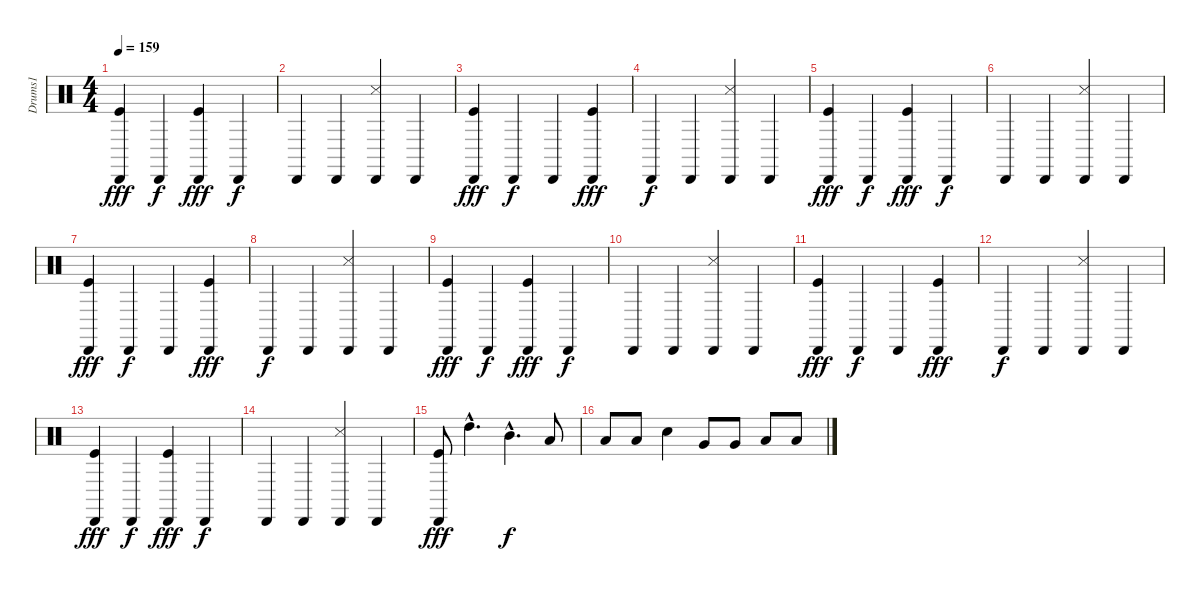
\track ("Drums1" "Drums1") {instrument percussion}
\staff {score}
\articulation defaults
\ts (4 4)
\tempo 159
\clef neutral
\ks c
("Cabasa (hit)" "Kick (hit)").4{dy fff} "Cabasa (hit)".4{dy f} ("Cabasa (hit)" "Kick (hit)").4{dy fff} "Cabasa (hit)".4{dy f} |
"Cabasa (hit)".4 "Cabasa (hit)".4 ("Cabasa (hit)" "Snare (side stick) 3").4 "Cabasa (hit)".4 |
("Cabasa (hit)" "Kick (hit)").4{dy fff} "Cabasa (hit)".4{dy f} "Cabasa (hit)".4 ("Cabasa (hit)" "Kick (hit)").4{dy fff} |
"Cabasa (hit)".4{dy f} "Cabasa (hit)".4 ("Cabasa (hit)" "Snare (side stick) 3").4 "Cabasa (hit)".4 |
("Cabasa (hit)" "Kick (hit)").4{dy fff} "Cabasa (hit)".4{dy f} ("Cabasa (hit)" "Kick (hit)").4{dy fff} "Cabasa (hit)".4{dy f} |
"Cabasa (hit)".4 "Cabasa (hit)".4 ("Cabasa (hit)" "Snare (side stick) 3").4 "Cabasa (hit)".4 |
("Cabasa (hit)" "Kick (hit)").4{dy fff} "Cabasa (hit)".4{dy f} "Cabasa (hit)".4 ("Cabasa (hit)" "Kick (hit)").4{dy fff} |
"Cabasa (hit)".4{dy f} "Cabasa (hit)".4 ("Cabasa (hit)" "Snare (side stick) 3").4 "Cabasa (hit)".4 |
("Cabasa (hit)" "Kick (hit)").4{dy fff} "Cabasa (hit)".4{dy f} ("Cabasa (hit)" "Kick (hit)").4{dy fff} "Cabasa (hit)".4{dy f} |
"Cabasa (hit)".4 "Cabasa (hit)".4 ("Cabasa (hit)" "Snare (side stick) 3").4 "Cabasa (hit)".4 |
("Cabasa (hit)" "Kick (hit)").4{dy fff} "Cabasa (hit)".4{dy f} "Cabasa (hit)".4 ("Cabasa (hit)" "Kick (hit)").4{dy fff} |
"Cabasa (hit)".4{dy f} "Cabasa (hit)".4 ("Cabasa (hit)" "Snare (side stick) 3").4 "Cabasa (hit)".4 |
("Cabasa (hit)" "Kick (hit)").4{dy fff} "Cabasa (hit)".4{dy f} ("Cabasa (hit)" "Kick (hit)").4{dy fff} "Cabasa (hit)".4{dy f} |
"Cabasa (hit)".4 "Cabasa (hit)".4 ("Cabasa (hit)" "Snare (side stick) 3").4 "Cabasa (hit)".4 |
("Cabasa (hit)" "Kick (hit)").8{dy fff} "High Tom (hit)"{hac}.4{d} "Mid Tom (hit)"{hac}.4{d dy f} "Low Tom (hit)".8 |
"Low Tom (hit)".8 "Low Tom (hit)".8 "Electric Snare (hit)".4 "Very Low Tom (hit)".8 "Very Low Tom (hit)".8 "Low Floor Tom (hit)".8 "Low Floor Tom (hit)".8
